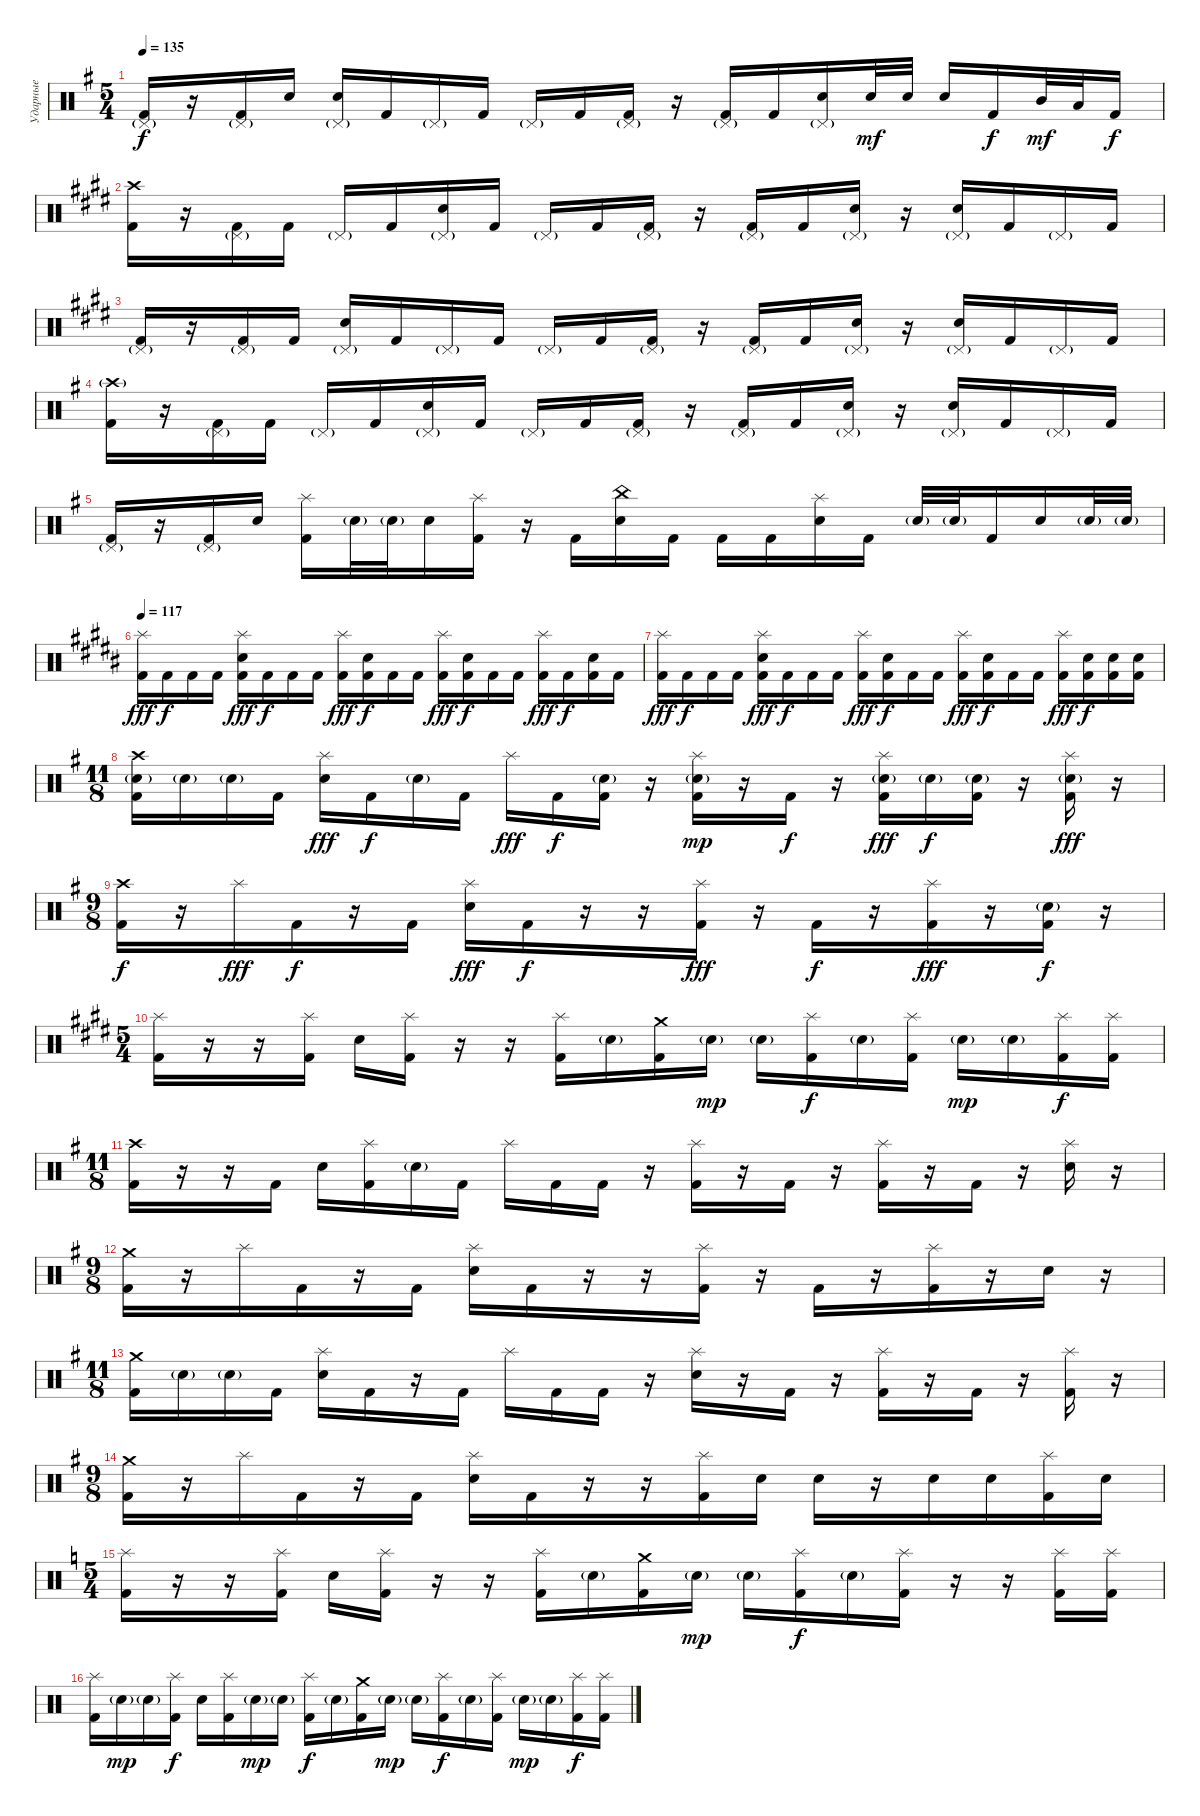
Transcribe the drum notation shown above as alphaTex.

\track ("Ударные" "Ударные") {instrument percussion}
\staff {score}
\articulation defaults
\ts (5 4)
\tempo 135
\clef neutral
\ks g
("Pedal Hi-Hat (hit)"{g} "Kick (hit) 2").16{dy f} r.16 ("Pedal Hi-Hat (hit)"{g} "Kick (hit) 2").16 "Electric Snare (hit)".16 ("Pedal Hi-Hat (hit)"{g} "Electric Snare (hit)").16 "Kick (hit) 2".16 "Pedal Hi-Hat (hit)"{g}.16 "Kick (hit) 2".16 "Pedal Hi-Hat (hit)"{g}.16 "Kick (hit) 2".16 ("Pedal Hi-Hat (hit)"{g} "Kick (hit) 2").16 r.16 ("Pedal Hi-Hat (hit)"{g} "Kick (hit) 2").16 "Kick (hit) 2".16 ("Pedal Hi-Hat (hit)"{g} "Electric Snare (hit)").16 "Electric Snare (hit)".32{dy mf} "Electric Snare (hit)".32 "Electric Snare (hit)".16 "Kick (hit) 2".16{dy f} "Mid Tom (hit)".32{dy mf} "Low Tom (hit)".32 "Kick (hit) 2".16{dy f} |
\ks e
("Crash high (hit)" "Kick (hit) 2").16 r.16 ("Pedal Hi-Hat (hit)"{g} "Kick (hit) 2").16 "Kick (hit) 2".16 "Pedal Hi-Hat (hit)"{g}.16 "Kick (hit) 2".16 ("Pedal Hi-Hat (hit)"{g} "Electric Snare (hit)").16 "Kick (hit) 2".16 "Pedal Hi-Hat (hit)"{g}.16 "Kick (hit) 2".16 ("Pedal Hi-Hat (hit)"{g} "Kick (hit) 2").16 r.16 ("Pedal Hi-Hat (hit)"{g} "Kick (hit) 2").16 "Kick (hit) 2".16 ("Pedal Hi-Hat (hit)"{g} "Electric Snare (hit)").16 r.16 ("Pedal Hi-Hat (hit)"{g} "Electric Snare (hit)").16 "Kick (hit) 2".16 "Pedal Hi-Hat (hit)"{g}.16 "Kick (hit) 2".16 |
("Pedal Hi-Hat (hit)"{g} "Kick (hit) 2").16 r.16 ("Pedal Hi-Hat (hit)"{g} "Kick (hit) 2").16 "Kick (hit) 2".16 ("Pedal Hi-Hat (hit)"{g} "Electric Snare (hit)").16 "Kick (hit) 2".16 "Pedal Hi-Hat (hit)"{g}.16 "Kick (hit) 2".16 "Pedal Hi-Hat (hit)"{g}.16 "Kick (hit) 2".16 ("Pedal Hi-Hat (hit)"{g} "Kick (hit) 2").16 r.16 ("Pedal Hi-Hat (hit)"{g} "Kick (hit) 2").16 "Kick (hit) 2".16 ("Pedal Hi-Hat (hit)"{g} "Electric Snare (hit)").16 r.16 ("Pedal Hi-Hat (hit)"{g} "Electric Snare (hit)").16 "Kick (hit) 2".16 "Pedal Hi-Hat (hit)"{g}.16 "Kick (hit) 2".16 |
\ks g
("Crash high (hit)"{g} "Kick (hit) 2").16 r.16 ("Pedal Hi-Hat (hit)"{g} "Kick (hit) 2").16 "Kick (hit) 2".16 "Pedal Hi-Hat (hit)"{g}.16 "Kick (hit) 2".16 ("Pedal Hi-Hat (hit)"{g} "Electric Snare (hit)").16 "Kick (hit) 2".16 "Pedal Hi-Hat (hit)"{g}.16 "Kick (hit) 2".16 ("Pedal Hi-Hat (hit)"{g} "Kick (hit) 2").16 r.16 ("Pedal Hi-Hat (hit)"{g} "Kick (hit) 2").16 "Kick (hit) 2".16 ("Pedal Hi-Hat (hit)"{g} "Electric Snare (hit)").16 r.16 ("Pedal Hi-Hat (hit)"{g} "Electric Snare (hit)").16 "Kick (hit) 2".16 "Pedal Hi-Hat (hit)"{g}.16 "Kick (hit) 2".16 |
("Pedal Hi-Hat (hit)"{g} "Kick (hit) 2").16 r.16 ("Pedal Hi-Hat (hit)"{g} "Kick (hit) 2").16 "Electric Snare (hit)".16 ("Splash (hit)" "Kick (hit) 2").16 "Electric Snare (hit)"{g}.32 "Electric Snare (hit)"{g}.32 "Electric Snare (hit)".16 ("Splash (hit)" "Kick (hit) 2").16 r.16 "Kick (hit) 2".16 ("China (hit)" "Electric Snare (hit)").16 "Kick (hit) 2".16 "Kick (hit) 2".16 "Kick (hit) 2".16 ("Splash (hit)" "Electric Snare (hit)").16 "Kick (hit) 2".16 "Electric Snare (hit)"{g}.32 "Electric Snare (hit)"{g}.32 "Kick (hit) 2".16 "Electric Snare (hit)".16 "Electric Snare (hit)"{g}.32 "Electric Snare (hit)"{g}.32 |
\tempo 117
\ks b
("Splash (hit)" "Kick (hit) 2").16{dy fff} "Kick (hit) 2".16{dy f} "Kick (hit) 2".16 "Kick (hit) 2".16 ("Splash (hit)" "Electric Snare (hit)" "Kick (hit) 2").16{dy fff} "Kick (hit) 2".16{dy f} "Kick (hit) 2".16 "Kick (hit) 2".16 ("Splash (hit)" "Kick (hit) 2").16{dy fff} ("Electric Snare (hit)" "Kick (hit) 2").16{dy f} "Kick (hit) 2".16 "Kick (hit) 2".16 ("Splash (hit)" "Kick (hit) 2").16{dy fff} ("Electric Snare (hit)" "Kick (hit) 2").16{dy f} "Kick (hit) 2".16 "Kick (hit) 2".16 ("Splash (hit)" "Kick (hit) 2").16{dy fff} "Kick (hit) 2".16{dy f} ("Electric Snare (hit)" "Kick (hit) 2").16 "Kick (hit) 2".16 |
("Splash (hit)" "Kick (hit) 2").16{dy fff} "Kick (hit) 2".16{dy f} "Kick (hit) 2".16 "Kick (hit) 2".16 ("Splash (hit)" "Electric Snare (hit)" "Kick (hit) 2").16{dy fff} "Kick (hit) 2".16{dy f} "Kick (hit) 2".16 "Kick (hit) 2".16 ("Splash (hit)" "Kick (hit) 2").16{dy fff} ("Electric Snare (hit)" "Kick (hit) 2").16{dy f} "Kick (hit) 2".16 "Kick (hit) 2".16 ("Splash (hit)" "Kick (hit) 2").16{dy fff} ("Electric Snare (hit)" "Kick (hit) 2").16{dy f} "Kick (hit) 2".16 "Kick (hit) 2".16 ("Splash (hit)" "Kick (hit) 2").16{dy fff} ("Electric Snare (hit)" "Kick (hit) 2").16{dy f} ("Electric Snare (hit)" "Kick (hit) 2").16 ("Electric Snare (hit)" "Kick (hit) 2").16 |
\ts (11 8)
\ks g
("Crash high (hit)" "Electric Snare (hit)"{g} "Kick (hit) 2").16 "Electric Snare (hit)"{g}.16 "Electric Snare (hit)"{g}.16 "Kick (hit) 2".16 ("Splash (hit)" "Electric Snare (hit)").16{dy fff} "Kick (hit) 2".16{dy f} "Electric Snare (hit)"{g}.16 "Kick (hit) 2".16 "Splash (hit)".16{dy fff} "Kick (hit) 2".16{dy f} ("Electric Snare (hit)"{g} "Kick (hit) 2").16 r.16 ("Splash (hit)" "Electric Snare (hit)"{g} "Kick (hit) 2").16{dy mp} r.16 "Kick (hit) 2".16{dy f} r.16 ("Splash (hit)" "Electric Snare (hit)"{g} "Kick (hit) 2").16{dy fff} "Electric Snare (hit)"{g}.16{dy f} ("Electric Snare (hit)"{g} "Kick (hit) 2").16 r.16 ("Splash (hit)" "Electric Snare (hit)"{g} "Kick (hit) 2").16{dy fff} r.16 |
\ts (9 8)
("Crash high (hit)" "Kick (hit) 2").16{dy f} r.16 "Splash (hit)".16{dy fff} "Kick (hit) 2".16{dy f} r.16 "Kick (hit) 2".16 ("Splash (hit)" "Electric Snare (hit)").16{dy fff} "Kick (hit) 2".16{dy f} r.16 r.16 ("Splash (hit)" "Kick (hit) 2").16{dy fff} r.16 "Kick (hit) 2".16{dy f} r.16 ("Splash (hit)" "Kick (hit) 2").16{dy fff} r.16 ("Electric Snare (hit)"{g} "Kick (hit) 2").16{dy f} r.16 |
\ts (5 4)
\ks e
("Splash (hit)" "Kick (hit) 2").16 r.16 r.16 ("Splash (hit)" "Kick (hit) 2").16 "Electric Snare (hit)".16 ("Splash (hit)" "Kick (hit) 2").16 r.16 r.16 ("Splash (hit)" "Kick (hit) 2").16 "Electric Snare (hit)"{g}.16 ("Crash medium (hit)" "Kick (hit) 2").16 "Electric Snare (hit)"{g}.16{dy mp} "Electric Snare (hit)"{g}.16 ("Splash (hit)" "Kick (hit) 2").16{dy f} "Electric Snare (hit)"{g}.16 ("Splash (hit)" "Kick (hit) 2").16 "Electric Snare (hit)"{g}.16{dy mp} "Electric Snare (hit)"{g}.16 ("Splash (hit)" "Kick (hit) 2").16{dy f} ("Splash (hit)" "Kick (hit) 2").16 |
\ts (11 8)
\ks g
("Crash high (hit)" "Kick (hit) 2").16 r.16 r.16 "Kick (hit) 2".16 "Electric Snare (hit)".16 ("Splash (hit)" "Kick (hit) 2").16 "Electric Snare (hit)"{g}.16 "Kick (hit) 2".16 "Splash (hit)".16 "Kick (hit) 2".16 "Kick (hit) 2".16 r.16 ("Splash (hit)" "Kick (hit) 2").16 r.16 "Kick (hit) 2".16 r.16 ("Splash (hit)" "Kick (hit) 2").16 r.16 "Kick (hit) 2".16 r.16 ("Splash (hit)" "Electric Snare (hit)").16 r.16 |
\ts (9 8)
("Crash medium (hit)" "Kick (hit) 2").16 r.16 "Splash (hit)".16 "Kick (hit) 2".16 r.16 "Kick (hit) 2".16 ("Splash (hit)" "Electric Snare (hit)").16 "Kick (hit) 2".16 r.16 r.16 ("Splash (hit)" "Kick (hit) 2").16 r.16 "Kick (hit) 2".16 r.16 ("Splash (hit)" "Kick (hit) 2").16 r.16 "Electric Snare (hit)".16 r.16 |
\ts (11 8)
("Crash medium (hit)" "Kick (hit) 2").16 "Electric Snare (hit)"{g}.16 "Electric Snare (hit)"{g}.16 "Kick (hit) 2".16 ("Splash (hit)" "Electric Snare (hit)").16 "Kick (hit) 2".16 r.16 "Kick (hit) 2".16 "Splash (hit)".16 "Kick (hit) 2".16 "Kick (hit) 2".16 r.16 ("Splash (hit)" "Electric Snare (hit)").16 r.16 "Kick (hit) 2".16 r.16 ("Splash (hit)" "Kick (hit) 2").16 r.16 "Kick (hit) 2".16 r.16 ("Splash (hit)" "Kick (hit) 2").16 r.16 |
\ts (9 8)
("Crash medium (hit)" "Kick (hit) 2").16 r.16 "Splash (hit)".16 "Kick (hit) 2".16 r.16 "Kick (hit) 2".16 ("Splash (hit)" "Electric Snare (hit)").16 "Kick (hit) 2".16 r.16 r.16 ("Splash (hit)" "Kick (hit) 2").16 "Electric Snare (hit)".16 "Electric Snare (hit)".16 r.16 "Electric Snare (hit)".16 "Electric Snare (hit)".16 ("Splash (hit)" "Kick (hit) 2").16 "Electric Snare (hit)".16 |
\ts (5 4)
\ks c
("Splash (hit)" "Kick (hit) 2").16 r.16 r.16 ("Splash (hit)" "Kick (hit) 2").16 "Electric Snare (hit)".16 ("Splash (hit)" "Kick (hit) 2").16 r.16 r.16 ("Splash (hit)" "Kick (hit) 2").16 "Electric Snare (hit)"{g}.16 ("Crash medium (hit)" "Kick (hit) 2").16 "Electric Snare (hit)"{g}.16{dy mp} "Electric Snare (hit)"{g}.16 ("Splash (hit)" "Kick (hit) 2").16{dy f} "Electric Snare (hit)"{g}.16 ("Splash (hit)" "Kick (hit) 2").16 r.16 r.16 ("Splash (hit)" "Kick (hit) 2").16 ("Splash (hit)" "Kick (hit) 2").16 |
("Splash (hit)" "Kick (hit) 2").16 "Electric Snare (hit)"{g}.16{dy mp} "Electric Snare (hit)"{g}.16 ("Splash (hit)" "Kick (hit) 2").16{dy f} "Electric Snare (hit)".16 ("Splash (hit)" "Kick (hit) 2").16 "Electric Snare (hit)"{g}.16{dy mp} "Electric Snare (hit)"{g}.16 ("Splash (hit)" "Kick (hit) 2").16{dy f} "Electric Snare (hit)"{g}.16 ("Crash medium (hit)" "Kick (hit) 2").16 "Electric Snare (hit)"{g}.16{dy mp} "Electric Snare (hit)"{g}.16 ("Splash (hit)" "Kick (hit) 2").16{dy f} "Electric Snare (hit)"{g}.16 ("Splash (hit)" "Kick (hit) 2").16 "Electric Snare (hit)"{g}.16{dy mp} "Electric Snare (hit)"{g}.16 ("Splash (hit)" "Kick (hit) 2").16{dy f} ("Splash (hit)" "Kick (hit) 2").16
